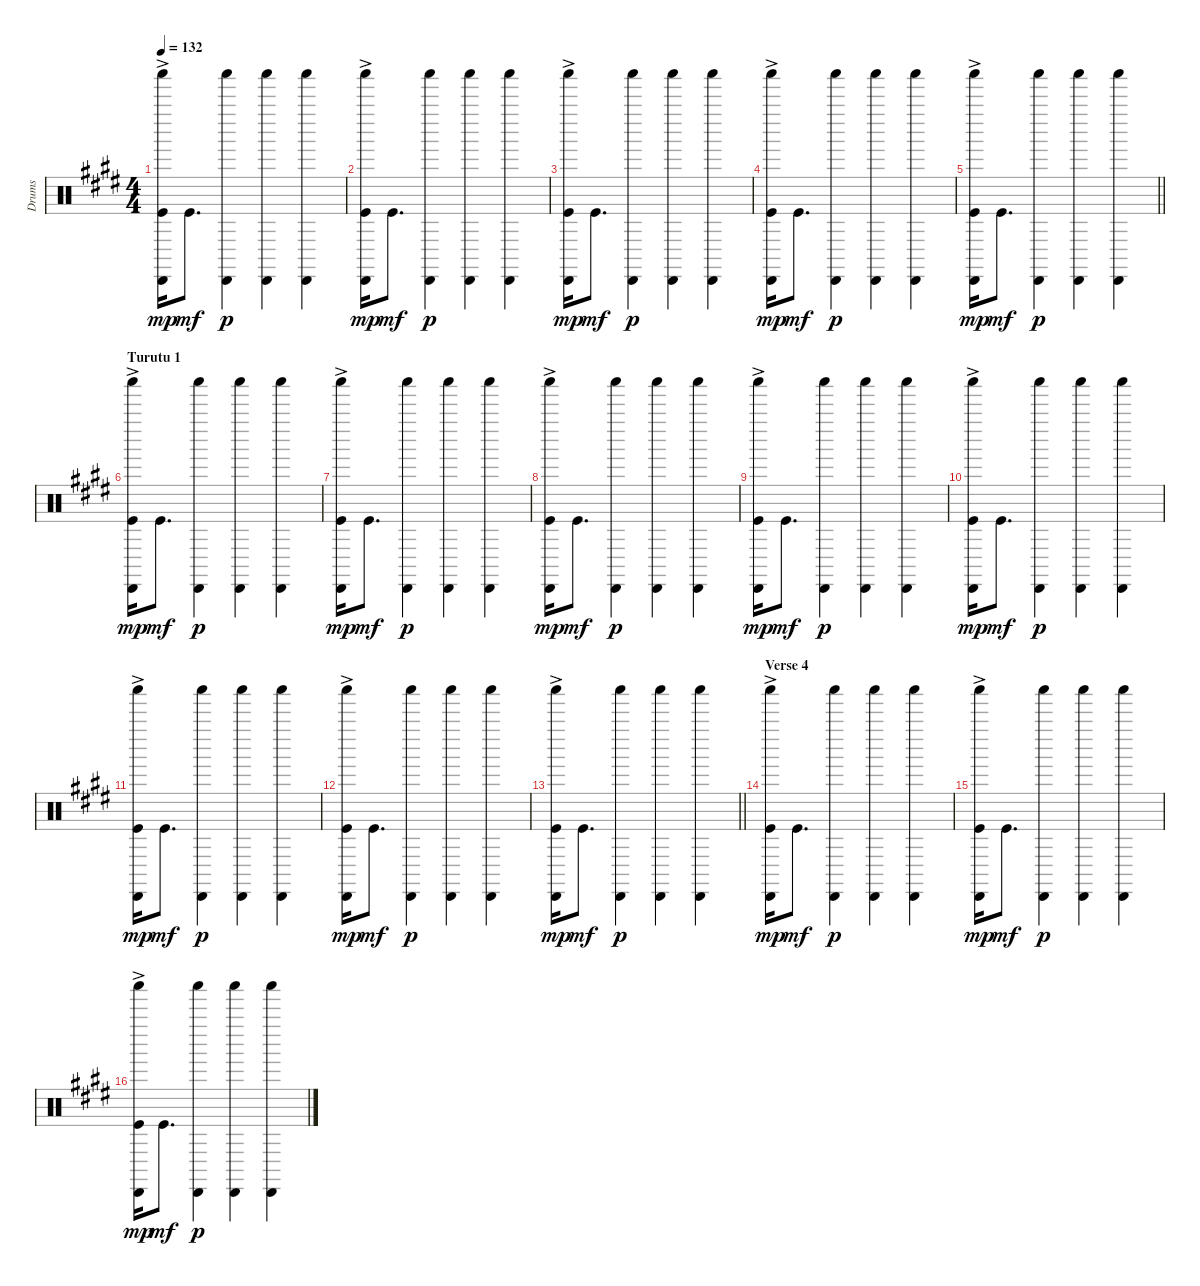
\track ("Drums" "Drums") {instrument percussion}
\staff {score}
\articulation defaults
\ts (4 4)
\tempo 132
\clef neutral
\ks e
("Shaker (hit)" "Cabasa (hit)"{ac} "Kick (hit)").16{dy mp} "Kick (hit)".8{d dy mf} ("Shaker (hit)" "Cabasa (hit)").4{dy p} ("Shaker (hit)" "Cabasa (hit)").4 ("Shaker (hit)" "Cabasa (hit)").4 |
("Shaker (hit)" "Cabasa (hit)"{ac} "Kick (hit)").16{dy mp} "Kick (hit)".8{d dy mf} ("Shaker (hit)" "Cabasa (hit)").4{dy p} ("Shaker (hit)" "Cabasa (hit)").4 ("Shaker (hit)" "Cabasa (hit)").4 |
("Shaker (hit)" "Cabasa (hit)"{ac} "Kick (hit)").16{dy mp} "Kick (hit)".8{d dy mf} ("Shaker (hit)" "Cabasa (hit)").4{dy p} ("Shaker (hit)" "Cabasa (hit)").4 ("Shaker (hit)" "Cabasa (hit)").4 |
("Shaker (hit)" "Cabasa (hit)"{ac} "Kick (hit)").16{dy mp} "Kick (hit)".8{d dy mf} ("Shaker (hit)" "Cabasa (hit)").4{dy p} ("Shaker (hit)" "Cabasa (hit)").4 ("Shaker (hit)" "Cabasa (hit)").4 |
\barLineRight lightlight
("Shaker (hit)" "Cabasa (hit)"{ac} "Kick (hit)").16{dy mp} "Kick (hit)".8{d dy mf} ("Shaker (hit)" "Cabasa (hit)").4{dy p} ("Shaker (hit)" "Cabasa (hit)").4 ("Shaker (hit)" "Cabasa (hit)").4 |
\section ("" "Turutu 1")
("Shaker (hit)" "Cabasa (hit)"{ac} "Kick (hit)").16{dy mp} "Kick (hit)".8{d dy mf} ("Shaker (hit)" "Cabasa (hit)").4{dy p} ("Shaker (hit)" "Cabasa (hit)").4 ("Shaker (hit)" "Cabasa (hit)").4 |
("Shaker (hit)" "Cabasa (hit)"{ac} "Kick (hit)").16{dy mp} "Kick (hit)".8{d dy mf} ("Shaker (hit)" "Cabasa (hit)").4{dy p} ("Shaker (hit)" "Cabasa (hit)").4 ("Shaker (hit)" "Cabasa (hit)").4 |
("Shaker (hit)" "Cabasa (hit)"{ac} "Kick (hit)").16{dy mp} "Kick (hit)".8{d dy mf} ("Shaker (hit)" "Cabasa (hit)").4{dy p} ("Shaker (hit)" "Cabasa (hit)").4 ("Shaker (hit)" "Cabasa (hit)").4 |
("Shaker (hit)" "Cabasa (hit)"{ac} "Kick (hit)").16{dy mp} "Kick (hit)".8{d dy mf} ("Shaker (hit)" "Cabasa (hit)").4{dy p} ("Shaker (hit)" "Cabasa (hit)").4 ("Shaker (hit)" "Cabasa (hit)").4 |
("Shaker (hit)" "Cabasa (hit)"{ac} "Kick (hit)").16{dy mp} "Kick (hit)".8{d dy mf} ("Shaker (hit)" "Cabasa (hit)").4{dy p} ("Shaker (hit)" "Cabasa (hit)").4 ("Shaker (hit)" "Cabasa (hit)").4 |
("Shaker (hit)" "Cabasa (hit)"{ac} "Kick (hit)").16{dy mp} "Kick (hit)".8{d dy mf} ("Shaker (hit)" "Cabasa (hit)").4{dy p} ("Shaker (hit)" "Cabasa (hit)").4 ("Shaker (hit)" "Cabasa (hit)").4 |
("Shaker (hit)" "Cabasa (hit)"{ac} "Kick (hit)").16{dy mp} "Kick (hit)".8{d dy mf} ("Shaker (hit)" "Cabasa (hit)").4{dy p} ("Shaker (hit)" "Cabasa (hit)").4 ("Shaker (hit)" "Cabasa (hit)").4 |
\barLineRight lightlight
("Shaker (hit)" "Cabasa (hit)"{ac} "Kick (hit)").16{dy mp} "Kick (hit)".8{d dy mf} ("Shaker (hit)" "Cabasa (hit)").4{dy p} ("Shaker (hit)" "Cabasa (hit)").4 ("Shaker (hit)" "Cabasa (hit)").4 |
\section ("" "Verse 4")
("Shaker (hit)" "Cabasa (hit)"{ac} "Kick (hit)").16{dy mp} "Kick (hit)".8{d dy mf} ("Shaker (hit)" "Cabasa (hit)").4{dy p} ("Shaker (hit)" "Cabasa (hit)").4 ("Shaker (hit)" "Cabasa (hit)").4 |
("Shaker (hit)" "Cabasa (hit)"{ac} "Kick (hit)").16{dy mp} "Kick (hit)".8{d dy mf} ("Shaker (hit)" "Cabasa (hit)").4{dy p} ("Shaker (hit)" "Cabasa (hit)").4 ("Shaker (hit)" "Cabasa (hit)").4 |
("Shaker (hit)" "Cabasa (hit)"{ac} "Kick (hit)").16{dy mp} "Kick (hit)".8{d dy mf} ("Shaker (hit)" "Cabasa (hit)").4{dy p} ("Shaker (hit)" "Cabasa (hit)").4 ("Shaker (hit)" "Cabasa (hit)").4
